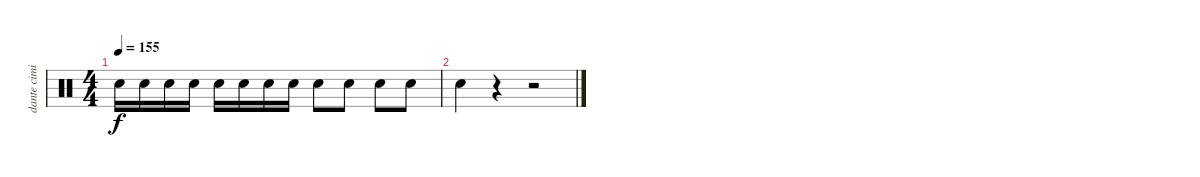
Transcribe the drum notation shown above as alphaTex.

\track ("dante cimino" "dante cimi") {instrument percussion}
\staff {score}
\articulation defaults
\ts (4 4)
\tempo 155
\clef neutral
\ks c "Electric Snare (hit)".16{dy f} "Electric Snare (hit)".16 "Electric Snare (hit)".16 "Electric Snare (hit)".16 "Electric Snare (hit)".16 "Electric Snare (hit)".16 "Electric Snare (hit)".16 "Electric Snare (hit)".16 "Electric Snare (hit)".8 "Electric Snare (hit)".8 "Electric Snare (hit)".8 "Electric Snare (hit)".8
|
"Electric Snare (hit)".4 r.4 r.2
